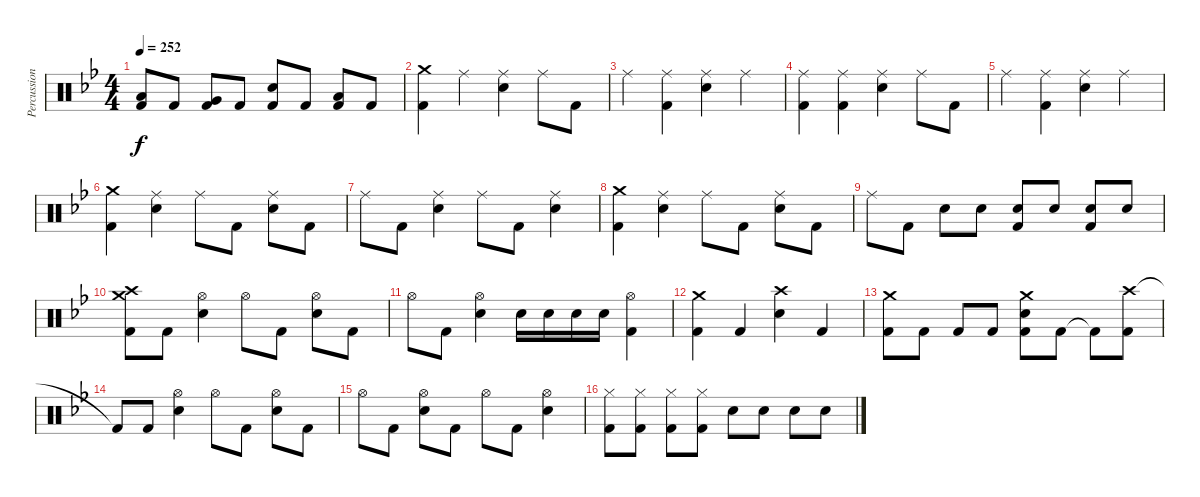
\track ("Percussion" "Percussion") {instrument percussion}
\staff {score}
\articulation defaults
\ts (4 4)
\tempo 252
\clef neutral
\ks bb
("Low Tom (hit)" "Kick (hit) 2").8{dy f} "Kick (hit) 2".8 ("Very Low Tom (hit)" "Kick (hit) 2").8 "Kick (hit) 2".8 ("Electric Snare (hit)" "Kick (hit) 2").8 "Kick (hit) 2".8 ("Low Tom (hit)" "Kick (hit) 2").8 "Kick (hit) 2".8 |
("Crash medium (hit)" "Kick (hit) 2").4 "Ride (middle)".4 ("Ride (middle)" "Electric Snare (hit)").4 "Ride (middle)".8 "Kick (hit) 2".8 |
"Ride (middle)".4 ("Ride (middle)" "Kick (hit) 2").4 ("Ride (middle)" "Electric Snare (hit)").4 "Ride (middle)".4 |
("Ride (middle)" "Kick (hit) 2").4 ("Ride (middle)" "Kick (hit) 2").4 ("Ride (middle)" "Electric Snare (hit)").4 "Ride (middle)".8 "Kick (hit) 2".8 |
"Ride (middle)".4 ("Ride (middle)" "Kick (hit) 2").4 ("Ride (middle)" "Electric Snare (hit)").4 "Ride (middle)".4 |
("Crash medium (hit)" "Kick (hit) 2").4 ("Ride (middle)" "Electric Snare (hit)").4 "Ride (middle)".8 "Kick (hit) 2".8 ("Ride (middle)" "Electric Snare (hit)").8 "Kick (hit) 2".8 |
"Ride (middle)".8 "Kick (hit) 2".8 ("Ride (middle)" "Electric Snare (hit)").4 "Ride (middle)".8 "Kick (hit) 2".8 ("Ride (middle)" "Electric Snare (hit)").4 |
("Crash medium (hit)" "Kick (hit) 2").4 ("Ride (middle)" "Electric Snare (hit)").4 "Ride (middle)".8 "Kick (hit) 2".8 ("Ride (middle)" "Electric Snare (hit)").8 "Kick (hit) 2".8 |
"Ride (middle)".8 "Kick (hit) 2".8 "Electric Snare (hit)".8 "Electric Snare (hit)".8 ("Electric Snare (hit)" "Kick (hit) 2").8 "Electric Snare (hit)".8 ("Electric Snare (hit)" "Kick (hit) 2").8 "Electric Snare (hit)".8 |
("Crash medium (hit)" "Crash high (hit)" "Kick (hit) 2").8 "Kick (hit) 2".8 ("Hi-Hat (open)" "Electric Snare (hit)").4 "Hi-Hat (open)".8 "Kick (hit) 2".8 ("Hi-Hat (open)" "Electric Snare (hit)").8 "Kick (hit) 2".8 |
"Hi-Hat (open)".8 "Kick (hit) 2".8 ("Hi-Hat (open)" "Electric Snare (hit)").4 "Electric Snare (hit)".16 "Electric Snare (hit)".16 "Electric Snare (hit)".16 "Electric Snare (hit)".16 ("Hi-Hat (open)" "Kick (hit) 2").4 |
("Crash medium (hit)" "Kick (hit) 2").4 "Kick (hit) 2".4 ("Crash high (hit)" "Electric Snare (hit)").4 "Kick (hit) 2".4 |
("Crash medium (hit)" "Kick (hit) 2").8 "Kick (hit) 2".8 "Kick (hit) 2".8 "Kick (hit) 2".8 ("Crash medium (hit)" "Electric Snare (hit)" "Kick (hit) 2").8 "Kick (hit) 2".8 "Kick (hit) 2"{t}.8 ("Crash high (hit)" "Kick (hit) 2").8 |
"Kick (hit) 2"{t}.8 "Kick (hit) 2".8 ("Hi-Hat (open)" "Electric Snare (hit)").4 "Hi-Hat (open)".8 "Kick (hit) 2".8 ("Hi-Hat (open)" "Electric Snare (hit)").8 "Kick (hit) 2".8 |
"Hi-Hat (open)".8 "Kick (hit) 2".8 ("Hi-Hat (open)" "Electric Snare (hit)").8 "Kick (hit) 2".8 "Hi-Hat (open)".8 "Kick (hit) 2".8 ("Hi-Hat (open)" "Electric Snare (hit)").4 |
("Hi-Hat (closed)" "Kick (hit) 2").8 ("Hi-Hat (closed)" "Kick (hit) 2").8 ("Hi-Hat (closed)" "Kick (hit) 2").8 ("Hi-Hat (closed)" "Kick (hit) 2").8 "Electric Snare (hit)".8 "Electric Snare (hit)".8 "Electric Snare (hit)".8 "Electric Snare (hit)".8
